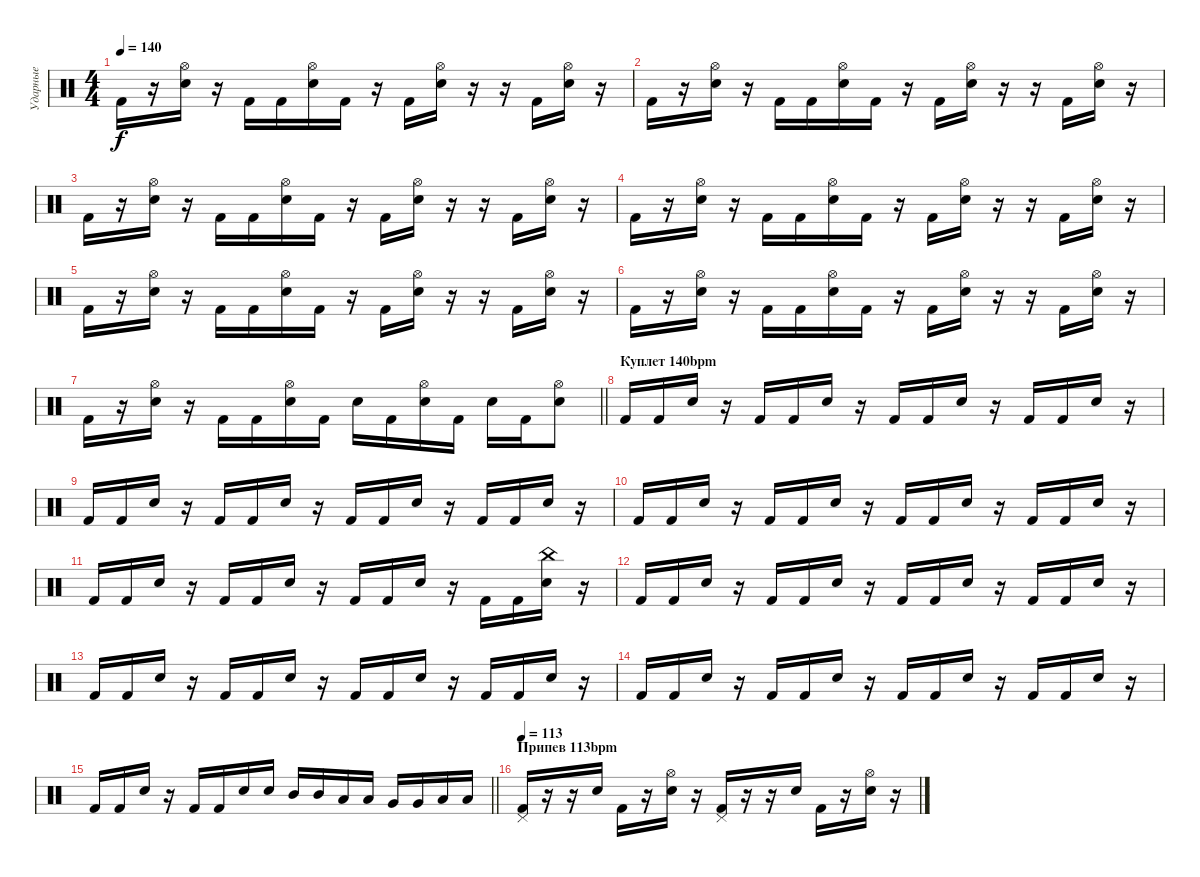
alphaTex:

\track ("Ударные" "Ударные") {instrument percussion}
\staff {score}
\articulation defaults
\ts (4 4)
\tempo 140
\clef neutral
\ks c "Kick (hit) 2".16{dy f}
r.16 ("Electric Snare (hit)" "Hi-Hat (open)").16 r.16 "Kick (hit) 2".16 "Kick (hit) 2".16 ("Electric Snare (hit)" "Hi-Hat (open)").16 "Kick (hit) 2".16 r.16 "Kick (hit) 2".16 ("Electric Snare (hit)" "Hi-Hat (open)").16 r.16 r.16 "Kick (hit) 2".16 ("Electric Snare (hit)" "Hi-Hat (open)").16 r.16 |
"Kick (hit) 2".16 r.16 ("Electric Snare (hit)" "Hi-Hat (open)").16 r.16 "Kick (hit) 2".16 "Kick (hit) 2".16 ("Electric Snare (hit)" "Hi-Hat (open)").16 "Kick (hit) 2".16 r.16 "Kick (hit) 2".16 ("Electric Snare (hit)" "Hi-Hat (open)").16 r.16 r.16 "Kick (hit) 2".16 ("Electric Snare (hit)" "Hi-Hat (open)").16 r.16 |
"Kick (hit) 2".16 r.16 ("Electric Snare (hit)" "Hi-Hat (open)").16 r.16 "Kick (hit) 2".16 "Kick (hit) 2".16 ("Electric Snare (hit)" "Hi-Hat (open)").16 "Kick (hit) 2".16 r.16 "Kick (hit) 2".16 ("Electric Snare (hit)" "Hi-Hat (open)").16 r.16 r.16 "Kick (hit) 2".16 ("Electric Snare (hit)" "Hi-Hat (open)").16 r.16 |
"Kick (hit) 2".16 r.16 ("Electric Snare (hit)" "Hi-Hat (open)").16 r.16 "Kick (hit) 2".16 "Kick (hit) 2".16 ("Electric Snare (hit)" "Hi-Hat (open)").16 "Kick (hit) 2".16 r.16 "Kick (hit) 2".16 ("Electric Snare (hit)" "Hi-Hat (open)").16 r.16 r.16 "Kick (hit) 2".16 ("Electric Snare (hit)" "Hi-Hat (open)").16 r.16 |
"Kick (hit) 2".16 r.16 ("Electric Snare (hit)" "Hi-Hat (open)").16 r.16 "Kick (hit) 2".16 "Kick (hit) 2".16 ("Electric Snare (hit)" "Hi-Hat (open)").16 "Kick (hit) 2".16 r.16 "Kick (hit) 2".16 ("Electric Snare (hit)" "Hi-Hat (open)").16 r.16 r.16 "Kick (hit) 2".16 ("Electric Snare (hit)" "Hi-Hat (open)").16 r.16 |
"Kick (hit) 2".16 r.16 ("Electric Snare (hit)" "Hi-Hat (open)").16 r.16 "Kick (hit) 2".16 "Kick (hit) 2".16 ("Electric Snare (hit)" "Hi-Hat (open)").16 "Kick (hit) 2".16 r.16 "Kick (hit) 2".16 ("Electric Snare (hit)" "Hi-Hat (open)").16 r.16 r.16 "Kick (hit) 2".16 ("Electric Snare (hit)" "Hi-Hat (open)").16 r.16 |
\barLineRight lightlight "Kick (hit) 2".16
r.16 ("Electric Snare (hit)" "Hi-Hat (open)").16 r.16 "Kick (hit) 2".16 "Kick (hit) 2".16 ("Electric Snare (hit)" "Hi-Hat (open)").16 "Kick (hit) 2".16 "Electric Snare (hit)".16 "Kick (hit) 2".16 ("Electric Snare (hit)" "Hi-Hat (open)").16 "Kick (hit) 2".16 "Electric Snare (hit)".16 "Kick (hit) 2".16 ("Electric Snare (hit)" "Hi-Hat (open)").8 |
\section ("" "Куплет 140bpm")
"Kick (hit) 2".16 "Kick (hit) 2".16 "Electric Snare (hit)".16 r.16 "Kick (hit) 2".16 "Kick (hit) 2".16 "Electric Snare (hit)".16 r.16 "Kick (hit) 2".16 "Kick (hit) 2".16 "Electric Snare (hit)".16 r.16 "Kick (hit) 2".16 "Kick (hit) 2".16 "Electric Snare (hit)".16 r.16 |
"Kick (hit) 2".16 "Kick (hit) 2".16 "Electric Snare (hit)".16 r.16 "Kick (hit) 2".16 "Kick (hit) 2".16 "Electric Snare (hit)".16 r.16 "Kick (hit) 2".16 "Kick (hit) 2".16 "Electric Snare (hit)".16 r.16 "Kick (hit) 2".16 "Kick (hit) 2".16 "Electric Snare (hit)".16 r.16 |
"Kick (hit) 2".16 "Kick (hit) 2".16 "Electric Snare (hit)".16 r.16 "Kick (hit) 2".16 "Kick (hit) 2".16 "Electric Snare (hit)".16 r.16 "Kick (hit) 2".16 "Kick (hit) 2".16 "Electric Snare (hit)".16 r.16 "Kick (hit) 2".16 "Kick (hit) 2".16 "Electric Snare (hit)".16 r.16 |
"Kick (hit) 2".16 "Kick (hit) 2".16 "Electric Snare (hit)".16 r.16 "Kick (hit) 2".16 "Kick (hit) 2".16 "Electric Snare (hit)".16 r.16 "Kick (hit) 2".16 "Kick (hit) 2".16 "Electric Snare (hit)".16 r.16 "Kick (hit) 2".16 "Kick (hit) 2".16 ("Electric Snare (hit)" "China (hit)").16 r.16 |
"Kick (hit) 2".16 "Kick (hit) 2".16 "Electric Snare (hit)".16 r.16 "Kick (hit) 2".16 "Kick (hit) 2".16 "Electric Snare (hit)".16 r.16 "Kick (hit) 2".16 "Kick (hit) 2".16 "Electric Snare (hit)".16 r.16 "Kick (hit) 2".16 "Kick (hit) 2".16 "Electric Snare (hit)".16 r.16 |
"Kick (hit) 2".16 "Kick (hit) 2".16 "Electric Snare (hit)".16 r.16 "Kick (hit) 2".16 "Kick (hit) 2".16 "Electric Snare (hit)".16 r.16 "Kick (hit) 2".16 "Kick (hit) 2".16 "Electric Snare (hit)".16 r.16 "Kick (hit) 2".16 "Kick (hit) 2".16 "Electric Snare (hit)".16 r.16 |
"Kick (hit) 2".16 "Kick (hit) 2".16 "Electric Snare (hit)".16 r.16 "Kick (hit) 2".16 "Kick (hit) 2".16 "Electric Snare (hit)".16 r.16 "Kick (hit) 2".16 "Kick (hit) 2".16 "Electric Snare (hit)".16 r.16 "Kick (hit) 2".16 "Kick (hit) 2".16 "Electric Snare (hit)".16 r.16 |
\barLineRight lightlight "Kick (hit) 2".16 "Kick (hit) 2".16 "Electric Snare (hit)".16
r.16 "Kick (hit) 2".16 "Kick (hit) 2".16 "Electric Snare (hit)".16 "Electric Snare (hit)".16 "Mid Tom (hit)".16 "Mid Tom (hit)".16 "Low Tom (hit)".16 "Low Tom (hit)".16 "Very Low Tom (hit)".16 "Very Low Tom (hit)".16 "Low Floor Tom (hit)".16 "Low Floor Tom (hit)".16 |
\section ("" "Припев 113bpm")
\tempo 113
("Kick (hit) 2" "Pedal Hi-Hat (hit)").16 r.16 r.16 "Electric Snare (hit)".16 "Kick (hit) 2".16 r.16 ("Electric Snare (hit)" "Hi-Hat (open)").16 r.16 ("Kick (hit) 2" "Pedal Hi-Hat (hit)").16 r.16 r.16 "Electric Snare (hit)".16 "Kick (hit) 2".16 r.16 ("Electric Snare (hit)" "Hi-Hat (open)").16 r.16
